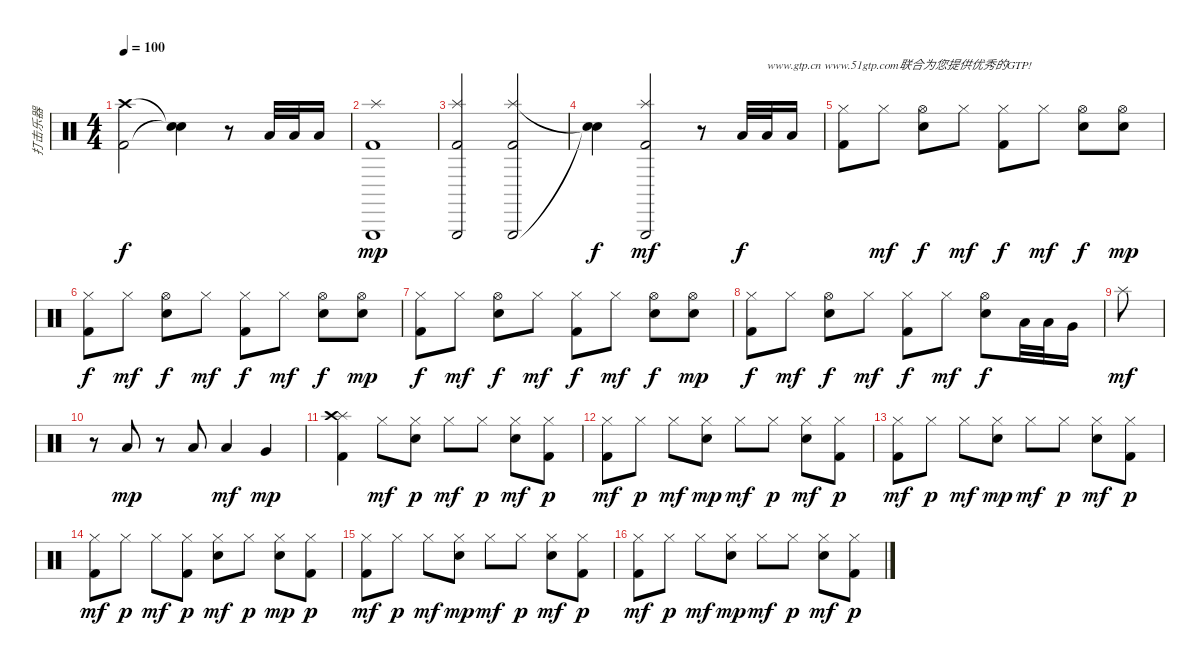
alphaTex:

\track ("打击乐器" "打击乐器") {instrument percussion}
\staff {score}
\articulation defaults
\ts (4 4)
\tempo 100
\clef neutral
\ks c
("Crash high (hit)" "Kick (hit) 2").2{dy f} ("Snare (hit)"{t} "Snare (hit)"{t}).4 r.8 "Low Tom (hit)".32 "Low Tom (hit)".32 "Low Tom (hit)".16 |
("Splash (hit)" "Triangle (hit)" "Kick (hit) 2").1{dy mp} |
("Splash (hit)" "Triangle (hit)" "Kick (hit) 2").2 ("Splash (hit)" "Triangle (hit)" "Kick (hit) 2").2 |
("Snare (hit)"{t} "Snare (hit)"{t}).4{dy f} ("Splash (hit)" "Triangle (hit)" "Kick (hit) 2").2{dy mf} r.8 "Low Tom (hit)".32{dy f} "Low Tom (hit)".32{txt "www.gtp.cn www.51gtp.com联合为您提供优秀的GTP!"} "Low Tom (hit)".16 |
("Hi-Hat (closed)" "Kick (hit) 2").8 "Hi-Hat (closed)".8{dy mf} ("Hi-Hat (open)" "Electric Snare (hit)").8{dy f} "Hi-Hat (closed)".8{dy mf} ("Hi-Hat (closed)" "Kick (hit) 2").8{dy f} "Hi-Hat (closed)".8{dy mf} ("Hi-Hat (open)" "Electric Snare (hit)").8{dy f} ("Hi-Hat (open)" "Electric Snare (hit)").8{dy mp} |
("Hi-Hat (closed)" "Kick (hit) 2").8{dy f} "Hi-Hat (closed)".8{dy mf} ("Hi-Hat (open)" "Electric Snare (hit)").8{dy f} "Hi-Hat (closed)".8{dy mf} ("Hi-Hat (closed)" "Kick (hit) 2").8{dy f} "Hi-Hat (closed)".8{dy mf} ("Hi-Hat (open)" "Electric Snare (hit)").8{dy f} ("Hi-Hat (open)" "Electric Snare (hit)").8{dy mp} |
("Hi-Hat (closed)" "Kick (hit) 2").8{dy f} "Hi-Hat (closed)".8{dy mf} ("Hi-Hat (open)" "Electric Snare (hit)").8{dy f} "Hi-Hat (closed)".8{dy mf} ("Hi-Hat (closed)" "Kick (hit) 2").8{dy f} "Hi-Hat (closed)".8{dy mf} ("Hi-Hat (open)" "Electric Snare (hit)").8{dy f} ("Hi-Hat (open)" "Electric Snare (hit)").8{dy mp} |
("Hi-Hat (closed)" "Kick (hit) 2").8{dy f} "Hi-Hat (closed)".8{dy mf} ("Hi-Hat (open)" "Electric Snare (hit)").8{dy f} "Hi-Hat (closed)".8{dy mf} ("Hi-Hat (closed)" "Kick (hit) 2").8{dy f} "Hi-Hat (closed)".8{dy mf} ("Hi-Hat (open)" "Electric Snare (hit)").8{dy f} "Low Tom (hit)".32 "Low Tom (hit)".32 "Very Low Tom (hit)".16 |
"Splash (hit)".8{dy mf} |
r.8 "Low Tom (hit)".8{dy mp} r.8 "Low Tom (hit)".8 "Low Tom (hit)".4{dy mf} "Very Low Tom (hit)".4{dy mp} |
("Splash (hit)" "Crash high (hit)" "Kick (hit) 2").4 "Hi-Hat (closed)".8{dy mf} ("Hi-Hat (closed)" "Electric Snare (hit)").8{dy p} "Hi-Hat (closed)".8{dy mf} "Hi-Hat (closed)".8{dy p} ("Hi-Hat (closed)" "Electric Snare (hit)").8{dy mf} ("Hi-Hat (closed)" "Kick (hit) 2").8{dy p} |
("Hi-Hat (closed)" "Kick (hit) 2").8{dy mf} "Hi-Hat (closed)".8{dy p} "Hi-Hat (closed)".8{dy mf} ("Hi-Hat (closed)" "Electric Snare (hit)").8{dy mp} "Hi-Hat (closed)".8{dy mf} "Hi-Hat (closed)".8{dy p} ("Hi-Hat (closed)" "Electric Snare (hit)").8{dy mf} ("Hi-Hat (closed)" "Kick (hit) 2").8{dy p} |
("Hi-Hat (closed)" "Kick (hit) 2").8{dy mf} "Hi-Hat (closed)".8{dy p} "Hi-Hat (closed)".8{dy mf} ("Hi-Hat (closed)" "Electric Snare (hit)").8{dy mp} "Hi-Hat (closed)".8{dy mf} "Hi-Hat (closed)".8{dy p} ("Hi-Hat (closed)" "Electric Snare (hit)").8{dy mf} ("Hi-Hat (closed)" "Kick (hit) 2").8{dy p} |
("Hi-Hat (closed)" "Kick (hit) 2").8{dy mf} "Hi-Hat (closed)".8{dy p} "Hi-Hat (closed)".8{dy mf} ("Hi-Hat (closed)" "Kick (hit) 2").8{dy p} ("Hi-Hat (closed)" "Electric Snare (hit)").8{dy mf} "Hi-Hat (closed)".8{dy p} ("Hi-Hat (closed)" "Electric Snare (hit)").8{dy mp} ("Hi-Hat (closed)" "Kick (hit) 2").8{dy p} |
("Hi-Hat (closed)" "Kick (hit) 2").8{dy mf} "Hi-Hat (closed)".8{dy p} "Hi-Hat (closed)".8{dy mf} ("Hi-Hat (closed)" "Electric Snare (hit)").8{dy mp} "Hi-Hat (closed)".8{dy mf} "Hi-Hat (closed)".8{dy p} ("Hi-Hat (closed)" "Electric Snare (hit)").8{dy mf} ("Hi-Hat (closed)" "Kick (hit) 2").8{dy p} |
("Hi-Hat (closed)" "Kick (hit) 2").8{dy mf} "Hi-Hat (closed)".8{dy p} "Hi-Hat (closed)".8{dy mf} ("Hi-Hat (closed)" "Electric Snare (hit)").8{dy mp} "Hi-Hat (closed)".8{dy mf} "Hi-Hat (closed)".8{dy p} ("Hi-Hat (closed)" "Electric Snare (hit)").8{dy mf} ("Hi-Hat (closed)" "Kick (hit) 2").8{dy p}
